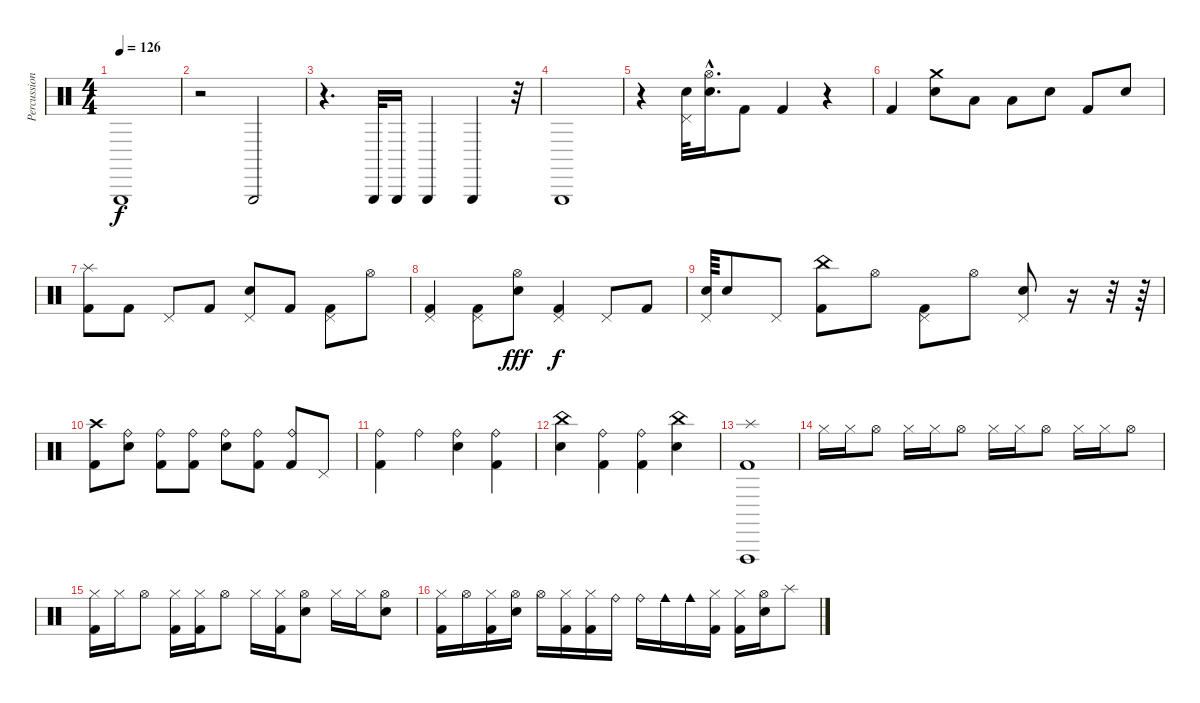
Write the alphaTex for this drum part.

\track ("Percussions" "Percussion") {instrument percussion}
\staff {score}
\articulation defaults
\ts (4 4)
\tempo 126
\clef neutral
\ks c "Triangle (hit)".1{dy f}
|
r.2 "Triangle (hit)".2 |
r.4{d} "Triangle (hit)".32 "Triangle (hit)".16 "Triangle (hit)".4 "Triangle (hit)".4 r.32 |
"Triangle (hit)".1 |
r.4 ("Pedal Hi-Hat (hit)" "Electric Snare (hit)").32 ("Hi-Hat (open)"{hac} "Electric Snare (hit)"{hac}).16{d} "Kick (hit) 2".8 "Kick (hit) 2".4 r.4 |
"Kick (hit) 2".4 ("Crash medium (hit)" "Electric Snare (hit)").8 "Low Floor Tom (hit)".8 "Low Floor Tom (hit)".8 "Electric Snare (hit)".8 "Kick (hit) 2".8 "Electric Snare (hit)".8 |
("Splash (hit)" "Kick (hit) 2").8 "Kick (hit) 2".8 "Pedal Hi-Hat (hit)".8 "Kick (hit) 2".8 ("Pedal Hi-Hat (hit)" "Electric Snare (hit)").8 "Kick (hit) 2".8 ("Pedal Hi-Hat (hit)" "Kick (hit) 2").8 "Hi-Hat (open)".8 |
("Pedal Hi-Hat (hit)" "Kick (hit) 2").4 ("Pedal Hi-Hat (hit)" "Kick (hit) 2").8 ("Hi-Hat (open)" "Electric Snare (hit)").8{dy fff} ("Pedal Hi-Hat (hit)" "Kick (hit) 2").4{dy f} "Pedal Hi-Hat (hit)".8 "Kick (hit) 2".8 |
("Pedal Hi-Hat (hit)" "Electric Snare (hit)").64 "Electric Snare (hit)".8 "Pedal Hi-Hat (hit)".8 ("China (hit)" "Kick (hit) 2").8 "Hi-Hat (open)".8 ("Pedal Hi-Hat (hit)" "Kick (hit) 2").8 "Hi-Hat (open)".8 ("Pedal Hi-Hat (hit)" "Electric Snare (hit)").8 r.16 r.32 r.64 |
("Crash high (hit)" "Kick (hit) 2").8 ("Ride (bell)" "Electric Snare (hit)").8 ("Ride (bell)" "Kick (hit) 2").8 ("Ride (bell)" "Kick (hit) 2").8 ("Ride (bell)" "Electric Snare (hit)").8 ("Ride (bell)" "Kick (hit) 2").8 ("Ride (bell)" "Kick (hit) 2").8 "Pedal Hi-Hat (hit)".8 |
("Ride (bell)" "Kick (hit) 2").4 "Ride (bell)".4 ("Ride (bell)" "Electric Snare (hit)").4 ("Ride (bell)" "Kick (hit) 2").4 |
("China (hit)" "Electric Snare (hit)").4 ("Ride (bell)" "Kick (hit) 2").4 ("Ride (bell)" "Kick (hit) 2").4 ("China (hit)" "Electric Snare (hit)").4 |
("Splash (hit)" "Vibraslap (hit)" "Kick (hit) 2").1 |
"Hi-Hat (closed)".16 "Hi-Hat (closed)".16 "Hi-Hat (open)".8 "Hi-Hat (closed)".16 "Hi-Hat (closed)".16 "Hi-Hat (open)".8 "Hi-Hat (closed)".16 "Hi-Hat (closed)".16 "Hi-Hat (open)".8 "Hi-Hat (closed)".16 "Hi-Hat (closed)".16 "Hi-Hat (open)".8 |
("Hi-Hat (closed)" "Kick (hit) 2").16 "Hi-Hat (closed)".16 "Hi-Hat (open)".8 ("Hi-Hat (closed)" "Kick (hit) 2").16 ("Hi-Hat (closed)" "Kick (hit) 2").16 "Hi-Hat (open)".8 "Hi-Hat (closed)".16 ("Hi-Hat (closed)" "Kick (hit) 2").16 ("Hi-Hat (open)" "Electric Snare (hit)").8 "Hi-Hat (closed)".16 "Hi-Hat (closed)".16 ("Hi-Hat (open)" "Electric Snare (hit)").8 |
("Hi-Hat (closed)" "Kick (hit) 2").16 "Hi-Hat (open)".16 ("Hi-Hat (closed)" "Kick (hit) 2").16 ("Hi-Hat (open)" "Electric Snare (hit)").16 "Hi-Hat (open)".16 ("Hi-Hat (closed)" "Kick (hit) 2").16 ("Hi-Hat (closed)" "Kick (hit) 2").16 "Ride (bell)".16 "Ride (bell)".16 "Cowbell medium (hit)".16 "Cowbell medium (hit)".16 ("Hi-Hat (closed)" "Kick (hit) 2").16 ("Hi-Hat (closed)" "Kick (hit) 2").16 ("Hi-Hat (open)" "Electric Snare (hit)").16 "Splash (hit)".8
